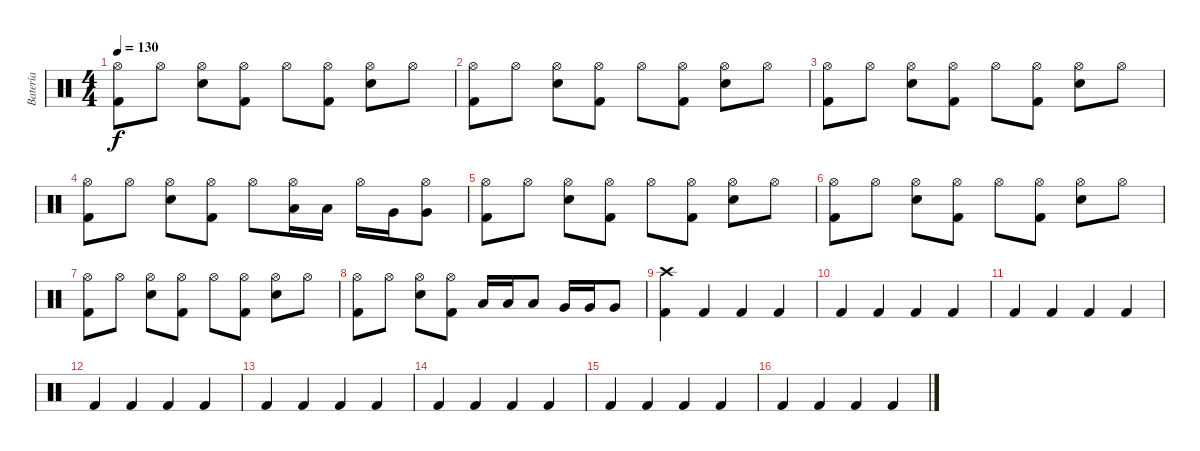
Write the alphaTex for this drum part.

\track ("Batería" "Batería") {instrument percussion}
\staff {score}
\articulation defaults
\ts (4 4)
\tempo 130
\clef neutral
\ks c
("Hi-Hat (open)" "Kick (hit) 2").8{dy f} "Hi-Hat (open)".8 ("Hi-Hat (open)" "Snare (hit) 2").8 ("Hi-Hat (open)" "Kick (hit) 2").8 "Hi-Hat (open)".8 ("Hi-Hat (open)" "Kick (hit) 2").8 ("Hi-Hat (open)" "Snare (hit) 2").8 "Hi-Hat (open)".8 |
("Hi-Hat (open)" "Kick (hit) 2").8 "Hi-Hat (open)".8 ("Hi-Hat (open)" "Snare (hit) 2").8 ("Hi-Hat (open)" "Kick (hit) 2").8 "Hi-Hat (open)".8 ("Hi-Hat (open)" "Kick (hit) 2").8 ("Hi-Hat (open)" "Snare (hit) 2").8 "Hi-Hat (open)".8 |
("Hi-Hat (open)" "Kick (hit) 2").8 "Hi-Hat (open)".8 ("Hi-Hat (open)" "Snare (hit) 2").8 ("Hi-Hat (open)" "Kick (hit) 2").8 "Hi-Hat (open)".8 ("Hi-Hat (open)" "Kick (hit) 2").8 ("Hi-Hat (open)" "Snare (hit) 2").8 "Hi-Hat (open)".8 |
("Hi-Hat (open)" "Kick (hit) 2").8 "Hi-Hat (open)".8 ("Hi-Hat (open)" "Snare (hit) 2").8 ("Hi-Hat (open)" "Kick (hit) 2").8 "Hi-Hat (open)".8 ("Low Tom (hit)" "Hi-Hat (open)").16 "Low Tom (hit)".16 "Hi-Hat (open)".16 "Very Low Tom (hit)".16 ("Very Low Tom (hit)" "Hi-Hat (open)").8 |
("Hi-Hat (open)" "Kick (hit) 2").8 "Hi-Hat (open)".8 ("Hi-Hat (open)" "Snare (hit) 2").8 ("Hi-Hat (open)" "Kick (hit) 2").8 "Hi-Hat (open)".8 ("Hi-Hat (open)" "Kick (hit) 2").8 ("Hi-Hat (open)" "Snare (hit) 2").8 "Hi-Hat (open)".8 |
("Hi-Hat (open)" "Kick (hit) 2").8 "Hi-Hat (open)".8 ("Hi-Hat (open)" "Snare (hit) 2").8 ("Hi-Hat (open)" "Kick (hit) 2").8 "Hi-Hat (open)".8 ("Hi-Hat (open)" "Kick (hit) 2").8 ("Hi-Hat (open)" "Snare (hit) 2").8 "Hi-Hat (open)".8 |
("Hi-Hat (open)" "Kick (hit) 2").8 "Hi-Hat (open)".8 ("Hi-Hat (open)" "Snare (hit) 2").8 ("Hi-Hat (open)" "Kick (hit) 2").8 "Hi-Hat (open)".8 ("Hi-Hat (open)" "Kick (hit) 2").8 ("Hi-Hat (open)" "Snare (hit) 2").8 "Hi-Hat (open)".8 |
("Hi-Hat (open)" "Kick (hit) 2").8 "Hi-Hat (open)".8 ("Hi-Hat (open)" "Snare (hit) 2").8 ("Hi-Hat (open)" "Kick (hit) 2").8 "Low Tom (hit)".16 "Low Tom (hit)".16 "Low Tom (hit)".8 "Very Low Tom (hit)".16 "Very Low Tom (hit)".16 "Very Low Tom (hit)".8 |
("Crash high (hit)" "Kick (hit) 2").4 "Kick (hit) 2".4 "Kick (hit) 2".4 "Kick (hit) 2".4 |
"Kick (hit) 2".4 "Kick (hit) 2".4 "Kick (hit) 2".4 "Kick (hit) 2".4 |
"Kick (hit) 2".4 "Kick (hit) 2".4 "Kick (hit) 2".4 "Kick (hit) 2".4 |
"Kick (hit) 2".4 "Kick (hit) 2".4 "Kick (hit) 2".4 "Kick (hit) 2".4 |
"Kick (hit) 2".4 "Kick (hit) 2".4 "Kick (hit) 2".4 "Kick (hit) 2".4 |
"Kick (hit) 2".4 "Kick (hit) 2".4 "Kick (hit) 2".4 "Kick (hit) 2".4 |
"Kick (hit) 2".4 "Kick (hit) 2".4 "Kick (hit) 2".4 "Kick (hit) 2".4 |
"Kick (hit) 2".4 "Kick (hit) 2".4 "Kick (hit) 2".4 "Kick (hit) 2".4
